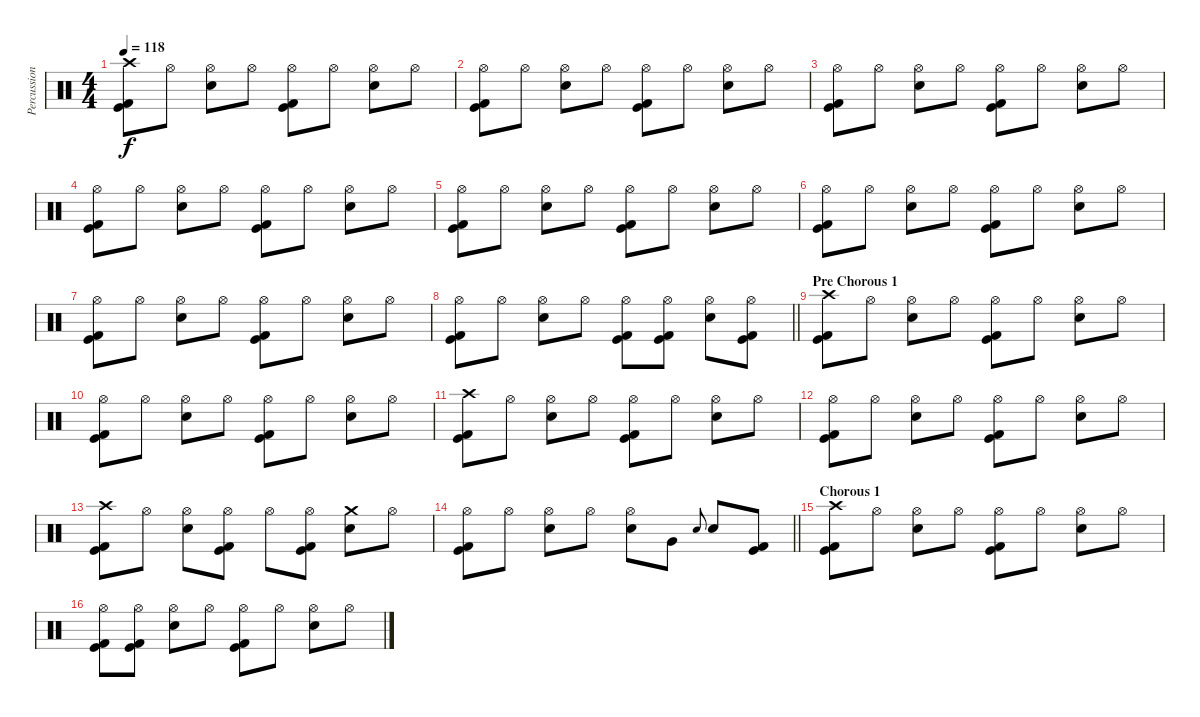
\track ("Percussion" "Percussion") {instrument percussion}
\staff {score}
\articulation defaults
\ts (4 4)
\tempo 118
\clef neutral
\ks c
("Crash high (hit)" "Kick (hit)" "Kick (hit) 2").8{dy f} "Hi-Hat (open)".8 ("Hi-Hat (open)" "Electric Snare (hit)").8 "Hi-Hat (open)".8 ("Hi-Hat (open)" "Kick (hit)" "Kick (hit) 2").8 "Hi-Hat (open)".8 ("Hi-Hat (open)" "Electric Snare (hit)").8 "Hi-Hat (open)".8 |
("Hi-Hat (open)" "Kick (hit)" "Kick (hit) 2").8 "Hi-Hat (open)".8 ("Hi-Hat (open)" "Electric Snare (hit)").8 "Hi-Hat (open)".8 ("Hi-Hat (open)" "Kick (hit)" "Kick (hit) 2").8 "Hi-Hat (open)".8 ("Hi-Hat (open)" "Electric Snare (hit)").8 "Hi-Hat (open)".8 |
("Hi-Hat (open)" "Kick (hit)" "Kick (hit) 2").8 "Hi-Hat (open)".8 ("Hi-Hat (open)" "Electric Snare (hit)").8 "Hi-Hat (open)".8 ("Hi-Hat (open)" "Kick (hit)" "Kick (hit) 2").8 "Hi-Hat (open)".8 ("Hi-Hat (open)" "Electric Snare (hit)").8 "Hi-Hat (open)".8 |
("Hi-Hat (open)" "Kick (hit)" "Kick (hit) 2").8 "Hi-Hat (open)".8 ("Hi-Hat (open)" "Electric Snare (hit)").8 "Hi-Hat (open)".8 ("Hi-Hat (open)" "Kick (hit)" "Kick (hit) 2").8 "Hi-Hat (open)".8 ("Hi-Hat (open)" "Electric Snare (hit)").8 "Hi-Hat (open)".8 |
("Hi-Hat (open)" "Kick (hit)" "Kick (hit) 2").8 "Hi-Hat (open)".8 ("Hi-Hat (open)" "Electric Snare (hit)").8 "Hi-Hat (open)".8 ("Hi-Hat (open)" "Kick (hit)" "Kick (hit) 2").8 "Hi-Hat (open)".8 ("Hi-Hat (open)" "Electric Snare (hit)").8 "Hi-Hat (open)".8 |
("Hi-Hat (open)" "Kick (hit)" "Kick (hit) 2").8 "Hi-Hat (open)".8 ("Hi-Hat (open)" "Electric Snare (hit)").8 "Hi-Hat (open)".8 ("Hi-Hat (open)" "Kick (hit)" "Kick (hit) 2").8 "Hi-Hat (open)".8 ("Hi-Hat (open)" "Electric Snare (hit)").8 "Hi-Hat (open)".8 |
("Hi-Hat (open)" "Kick (hit)" "Kick (hit) 2").8 "Hi-Hat (open)".8 ("Hi-Hat (open)" "Electric Snare (hit)").8 "Hi-Hat (open)".8 ("Hi-Hat (open)" "Kick (hit)" "Kick (hit) 2").8 "Hi-Hat (open)".8 ("Hi-Hat (open)" "Electric Snare (hit)").8 "Hi-Hat (open)".8 |
\barLineRight lightlight
("Hi-Hat (open)" "Kick (hit)" "Kick (hit) 2").8 "Hi-Hat (open)".8 ("Hi-Hat (open)" "Electric Snare (hit)").8 "Hi-Hat (open)".8 ("Hi-Hat (open)" "Kick (hit)" "Kick (hit) 2").8 ("Hi-Hat (open)" "Kick (hit)" "Kick (hit) 2").8 ("Hi-Hat (open)" "Electric Snare (hit)").8 ("Hi-Hat (open)" "Kick (hit)" "Kick (hit) 2").8 |
\section ("" "Pre Chorous 1")
("Crash high (hit)" "Kick (hit)" "Kick (hit) 2").8 "Hi-Hat (open)".8 ("Hi-Hat (open)" "Electric Snare (hit)").8 "Hi-Hat (open)".8 ("Hi-Hat (open)" "Kick (hit)" "Kick (hit) 2").8 "Hi-Hat (open)".8 ("Hi-Hat (open)" "Electric Snare (hit)").8 "Hi-Hat (open)".8 |
("Hi-Hat (open)" "Kick (hit)" "Kick (hit) 2").8 "Hi-Hat (open)".8 ("Hi-Hat (open)" "Electric Snare (hit)").8 "Hi-Hat (open)".8 ("Hi-Hat (open)" "Kick (hit)" "Kick (hit) 2").8 "Hi-Hat (open)".8 ("Hi-Hat (open)" "Electric Snare (hit)").8 "Hi-Hat (open)".8 |
("Crash high (hit)" "Kick (hit)" "Kick (hit) 2").8 "Hi-Hat (open)".8 ("Hi-Hat (open)" "Electric Snare (hit)").8 "Hi-Hat (open)".8 ("Hi-Hat (open)" "Kick (hit)" "Kick (hit) 2").8 "Hi-Hat (open)".8 ("Hi-Hat (open)" "Electric Snare (hit)").8 "Hi-Hat (open)".8 |
("Hi-Hat (open)" "Kick (hit)" "Kick (hit) 2").8 "Hi-Hat (open)".8 ("Hi-Hat (open)" "Electric Snare (hit)").8 "Hi-Hat (open)".8 ("Hi-Hat (open)" "Kick (hit)" "Kick (hit) 2").8 "Hi-Hat (open)".8 ("Hi-Hat (open)" "Electric Snare (hit)").8 "Hi-Hat (open)".8 |
("Crash high (hit)" "Kick (hit)" "Kick (hit) 2").8 "Hi-Hat (open)".8 ("Hi-Hat (open)" "Electric Snare (hit)").8 ("Hi-Hat (open)" "Kick (hit)" "Kick (hit) 2").8 "Hi-Hat (open)".8 ("Hi-Hat (open)" "Kick (hit)" "Kick (hit) 2").8 ("Crash medium (hit)" "Electric Snare (hit)").8 "Hi-Hat (open)".8 |
\barLineRight lightlight
("Hi-Hat (open)" "Kick (hit)" "Kick (hit) 2").8 "Hi-Hat (open)".8 ("Hi-Hat (open)" "Electric Snare (hit)").8 "Hi-Hat (open)".8 ("Hi-Hat (open)" "Electric Snare (hit)").8 "Very Low Tom (hit)".8 "Electric Snare (hit)".8{gr onbeat} "Electric Snare (hit)".8 ("Kick (hit)" "Kick (hit) 2").8 |
\section ("" "Chorous 1")
("Crash high (hit)" "Kick (hit)" "Kick (hit) 2").8 "Hi-Hat (open)".8 ("Hi-Hat (open)" "Electric Snare (hit)").8 "Hi-Hat (open)".8 ("Hi-Hat (open)" "Kick (hit)" "Kick (hit) 2").8 "Hi-Hat (open)".8 ("Hi-Hat (open)" "Electric Snare (hit)").8 "Hi-Hat (open)".8 |
("Hi-Hat (open)" "Kick (hit)" "Kick (hit) 2").8 ("Hi-Hat (open)" "Kick (hit)" "Kick (hit) 2").8 ("Hi-Hat (open)" "Electric Snare (hit)").8 "Hi-Hat (open)".8 ("Hi-Hat (open)" "Kick (hit)" "Kick (hit) 2").8 "Hi-Hat (open)".8 ("Hi-Hat (open)" "Electric Snare (hit)").8 "Hi-Hat (open)".8
